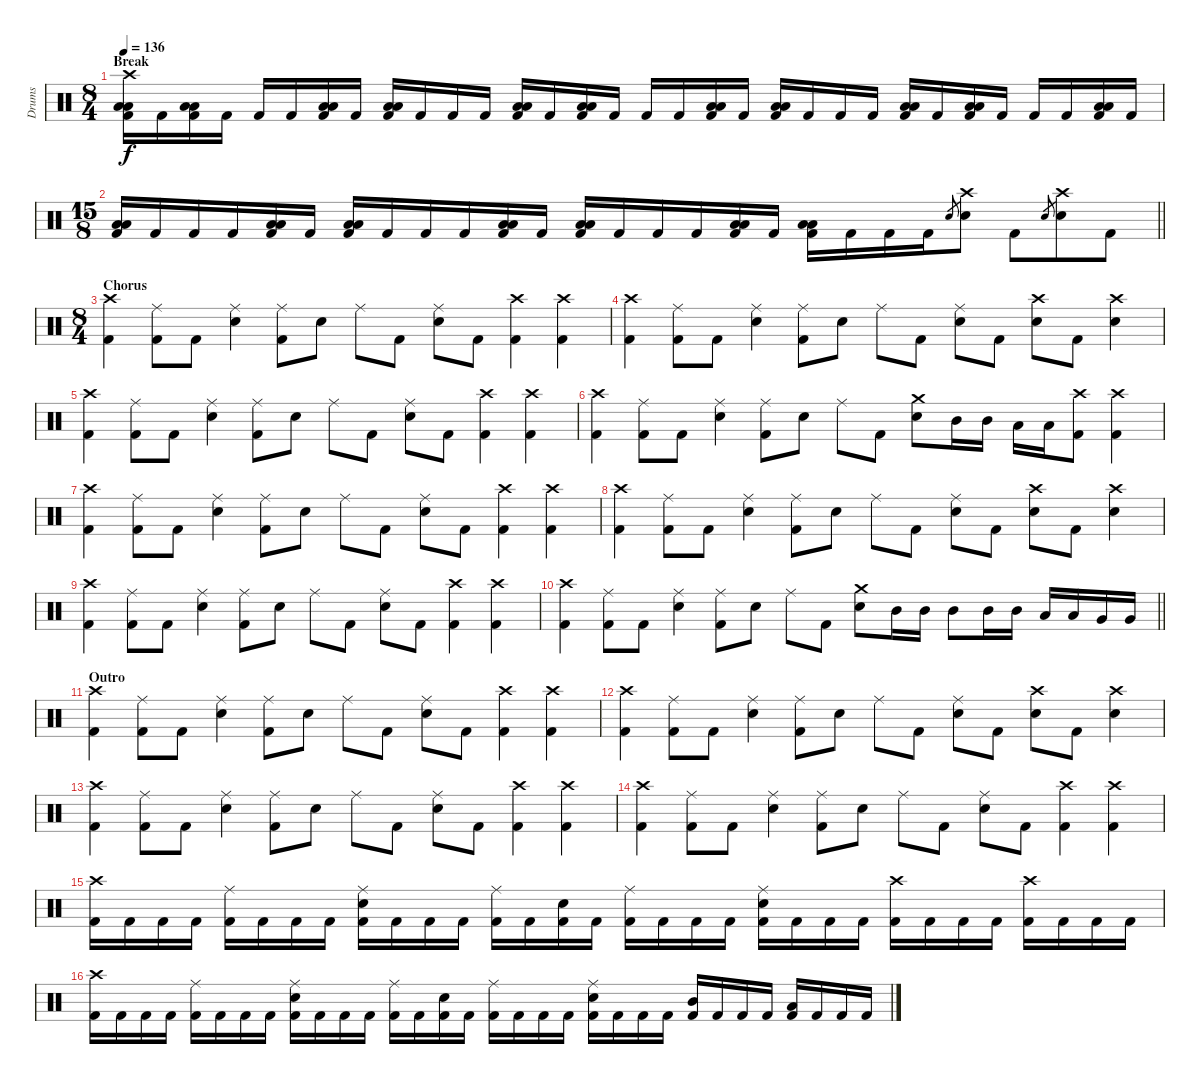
\track ("Drums" "Drums") {instrument percussion}
\staff {score}
\articulation defaults
\ts (8 4)
\section ("" "Break")
\tempo 136
\clef neutral
\ks c
("Crash high (hit)" "Low Floor Tom (hit)" "Low Floor Tom (hit)" "Kick (hit) 2").16{dy f} "Kick (hit) 2".16 ("Low Floor Tom (hit)" "Low Floor Tom (hit)" "Kick (hit) 2").16 "Kick (hit) 2".16 "Kick (hit) 2".16 "Kick (hit) 2".16 ("Low Floor Tom (hit)" "Low Floor Tom (hit)" "Kick (hit) 2").16 "Kick (hit) 2".16 ("Low Floor Tom (hit)" "Low Floor Tom (hit)" "Kick (hit) 2").16 "Kick (hit) 2".16 "Kick (hit) 2".16 "Kick (hit) 2".16 ("Low Floor Tom (hit)" "Low Floor Tom (hit)" "Kick (hit) 2").16 "Kick (hit) 2".16 ("Low Floor Tom (hit)" "Low Floor Tom (hit)" "Kick (hit) 2").16 "Kick (hit) 2".16 "Kick (hit) 2".16 "Kick (hit) 2".16 ("Low Floor Tom (hit)" "Low Floor Tom (hit)" "Kick (hit) 2").16 "Kick (hit) 2".16 ("Low Floor Tom (hit)" "Low Floor Tom (hit)" "Kick (hit) 2").16 "Kick (hit) 2".16 "Kick (hit) 2".16 "Kick (hit) 2".16 ("Low Floor Tom (hit)" "Low Floor Tom (hit)" "Kick (hit) 2").16 "Kick (hit) 2".16 ("Low Floor Tom (hit)" "Low Floor Tom (hit)" "Kick (hit) 2").16 "Kick (hit) 2".16 "Kick (hit) 2".16 "Kick (hit) 2".16 ("Low Floor Tom (hit)" "Low Floor Tom (hit)" "Kick (hit) 2").16 "Kick (hit) 2".16 |
\ts (15 8)
\barLineRight lightlight
("Low Floor Tom (hit)" "Low Floor Tom (hit)" "Kick (hit) 2").16 "Kick (hit) 2".16 "Kick (hit) 2".16 "Kick (hit) 2".16 ("Low Floor Tom (hit)" "Low Floor Tom (hit)" "Kick (hit) 2").16 "Kick (hit) 2".16 ("Low Floor Tom (hit)" "Low Floor Tom (hit)" "Kick (hit) 2").16 "Kick (hit) 2".16 "Kick (hit) 2".16 "Kick (hit) 2".16 ("Low Floor Tom (hit)" "Low Floor Tom (hit)" "Kick (hit) 2").16 "Kick (hit) 2".16 ("Low Floor Tom (hit)" "Low Floor Tom (hit)" "Kick (hit) 2").16 "Kick (hit) 2".16 "Kick (hit) 2".16 "Kick (hit) 2".16 ("Low Floor Tom (hit)" "Low Floor Tom (hit)" "Kick (hit) 2").16 "Kick (hit) 2".16 ("Low Floor Tom (hit)" "Low Floor Tom (hit)" "Kick (hit) 2").16 "Kick (hit) 2".16 "Kick (hit) 2".16 "Kick (hit) 2".16 "Snare (hit) 2"{h}.8{gr} ("Crash high (hit)" "Snare (hit) 2").8 "Kick (hit) 2".8 "Snare (hit) 2"{h}.8{gr} ("Crash high (hit)" "Snare (hit) 2").8 "Kick (hit) 2".8 |
\ts (8 4)
\section ("" "Chorus")
("Crash high (hit)" "Kick (hit) 2").4 ("Ride (middle)" "Kick (hit) 2").8 "Kick (hit) 2".8 ("Ride (middle)" "Snare (hit) 2").4 ("Ride (middle)" "Kick (hit) 2").8 "Snare (hit) 2".8 "Ride (middle)".8 "Kick (hit) 2".8 ("Ride (middle)" "Snare (hit) 2").8 "Kick (hit) 2".8 ("Crash high (hit)" "Kick (hit) 2").4 ("Crash high (hit)" "Kick (hit) 2").4 |
("Crash high (hit)" "Kick (hit) 2").4 ("Ride (middle)" "Kick (hit) 2").8 "Kick (hit) 2".8 ("Ride (middle)" "Snare (hit) 2").4 ("Ride (middle)" "Kick (hit) 2").8 "Snare (hit) 2".8 "Ride (middle)".8 "Kick (hit) 2".8 ("Ride (middle)" "Snare (hit) 2").8 "Kick (hit) 2".8 ("Crash high (hit)" "Snare (hit) 2").8 "Kick (hit) 2".8 ("Crash high (hit)" "Snare (hit) 2").4 |
("Crash high (hit)" "Kick (hit) 2").4 ("Ride (middle)" "Kick (hit) 2").8 "Kick (hit) 2".8 ("Ride (middle)" "Snare (hit) 2").4 ("Ride (middle)" "Kick (hit) 2").8 "Snare (hit) 2".8 "Ride (middle)".8 "Kick (hit) 2".8 ("Ride (middle)" "Snare (hit) 2").8 "Kick (hit) 2".8 ("Crash high (hit)" "Kick (hit) 2").4 ("Crash high (hit)" "Kick (hit) 2").4 |
("Crash high (hit)" "Kick (hit) 2").4 ("Ride (middle)" "Kick (hit) 2").8 "Kick (hit) 2".8 ("Ride (middle)" "Snare (hit) 2").4 ("Ride (middle)" "Kick (hit) 2").8 "Snare (hit) 2".8 "Ride (middle)".8 "Kick (hit) 2".8 ("Crash medium (hit)" "Snare (hit) 2").8 "Mid Tom (hit)".16 "Mid Tom (hit)".16 "Low Tom (hit)".16 "Low Tom (hit)".16 ("Crash high (hit)" "Kick (hit) 2").8 ("Crash high (hit)" "Kick (hit) 2").4 |
("Crash high (hit)" "Kick (hit) 2").4 ("Ride (middle)" "Kick (hit) 2").8 "Kick (hit) 2".8 ("Ride (middle)" "Snare (hit) 2").4 ("Ride (middle)" "Kick (hit) 2").8 "Snare (hit) 2".8 "Ride (middle)".8 "Kick (hit) 2".8 ("Ride (middle)" "Snare (hit) 2").8 "Kick (hit) 2".8 ("Crash high (hit)" "Kick (hit) 2").4 ("Crash high (hit)" "Kick (hit) 2").4 |
("Crash high (hit)" "Kick (hit) 2").4 ("Ride (middle)" "Kick (hit) 2").8 "Kick (hit) 2".8 ("Ride (middle)" "Snare (hit) 2").4 ("Ride (middle)" "Kick (hit) 2").8 "Snare (hit) 2".8 "Ride (middle)".8 "Kick (hit) 2".8 ("Ride (middle)" "Snare (hit) 2").8 "Kick (hit) 2".8 ("Crash high (hit)" "Snare (hit) 2").8 "Kick (hit) 2".8 ("Crash high (hit)" "Snare (hit) 2").4 |
("Crash high (hit)" "Kick (hit) 2").4 ("Ride (middle)" "Kick (hit) 2").8 "Kick (hit) 2".8 ("Ride (middle)" "Snare (hit) 2").4 ("Ride (middle)" "Kick (hit) 2").8 "Snare (hit) 2".8 "Ride (middle)".8 "Kick (hit) 2".8 ("Ride (middle)" "Snare (hit) 2").8 "Kick (hit) 2".8 ("Crash high (hit)" "Kick (hit) 2").4 ("Crash high (hit)" "Kick (hit) 2").4 |
\barLineRight lightlight
("Crash high (hit)" "Kick (hit) 2").4 ("Ride (middle)" "Kick (hit) 2").8 "Kick (hit) 2".8 ("Ride (middle)" "Snare (hit) 2").4 ("Ride (middle)" "Kick (hit) 2").8 "Snare (hit) 2".8 "Ride (middle)".8 "Kick (hit) 2".8 ("Crash medium (hit)" "Snare (hit) 2").8 "Mid Tom (hit)".16 "Mid Tom (hit)".16 "Mid Tom (hit)".8 "Mid Tom (hit)".16 "Mid Tom (hit)".16 "Low Tom (hit)".16 "Low Tom (hit)".16 "Very Low Tom (hit)".16 "Very Low Tom (hit)".16 |
\section ("" "Outro")
("Crash high (hit)" "Kick (hit) 2").4 ("Ride (middle)" "Kick (hit) 2").8 "Kick (hit) 2".8 ("Ride (middle)" "Snare (hit) 2").4 ("Ride (middle)" "Kick (hit) 2").8 "Snare (hit) 2".8 "Ride (middle)".8 "Kick (hit) 2".8 ("Ride (middle)" "Snare (hit) 2").8 "Kick (hit) 2".8 ("Crash high (hit)" "Kick (hit) 2").4 ("Crash high (hit)" "Kick (hit) 2").4 |
("Crash high (hit)" "Kick (hit) 2").4 ("Ride (middle)" "Kick (hit) 2").8 "Kick (hit) 2".8 ("Ride (middle)" "Snare (hit) 2").4 ("Ride (middle)" "Kick (hit) 2").8 "Snare (hit) 2".8 "Ride (middle)".8 "Kick (hit) 2".8 ("Ride (middle)" "Snare (hit) 2").8 "Kick (hit) 2".8 ("Crash high (hit)" "Snare (hit) 2").8 "Kick (hit) 2".8 ("Crash high (hit)" "Snare (hit) 2").4 |
("Crash high (hit)" "Kick (hit) 2").4 ("Ride (middle)" "Kick (hit) 2").8 "Kick (hit) 2".8 ("Ride (middle)" "Snare (hit) 2").4 ("Ride (middle)" "Kick (hit) 2").8 "Snare (hit) 2".8 "Ride (middle)".8 "Kick (hit) 2".8 ("Ride (middle)" "Snare (hit) 2").8 "Kick (hit) 2".8 ("Crash high (hit)" "Kick (hit) 2").4 ("Crash high (hit)" "Kick (hit) 2").4 |
("Crash high (hit)" "Kick (hit) 2").4 ("Ride (middle)" "Kick (hit) 2").8 "Kick (hit) 2".8 ("Ride (middle)" "Snare (hit) 2").4 ("Ride (middle)" "Kick (hit) 2").8 "Snare (hit) 2".8 "Ride (middle)".8 "Kick (hit) 2".8 ("Ride (middle)" "Snare (hit) 2").8 "Kick (hit) 2".8 ("Crash high (hit)" "Kick (hit) 2").4 ("Crash high (hit)" "Kick (hit) 2").4 |
("Crash high (hit)" "Kick (hit) 2").16 "Kick (hit) 2".16 "Kick (hit) 2".16 "Kick (hit) 2".16 ("Ride (middle)" "Kick (hit) 2").16 "Kick (hit) 2".16 "Kick (hit) 2".16 "Kick (hit) 2".16 ("Ride (middle)" "Snare (hit) 2" "Kick (hit) 2").16 "Kick (hit) 2".16 "Kick (hit) 2".16 "Kick (hit) 2".16 ("Ride (middle)" "Kick (hit) 2").16 "Kick (hit) 2".16 ("Snare (hit) 2" "Kick (hit) 2").16 "Kick (hit) 2".16 ("Ride (middle)" "Kick (hit) 2").16 "Kick (hit) 2".16 "Kick (hit) 2".16 "Kick (hit) 2".16 ("Ride (middle)" "Snare (hit) 2" "Kick (hit) 2").16 "Kick (hit) 2".16 "Kick (hit) 2".16 "Kick (hit) 2".16 ("Crash high (hit)" "Kick (hit) 2").16 "Kick (hit) 2".16 "Kick (hit) 2".16 "Kick (hit) 2".16 ("Crash high (hit)" "Kick (hit) 2").16 "Kick (hit) 2".16 "Kick (hit) 2".16 "Kick (hit) 2".16 |
("Crash high (hit)" "Kick (hit) 2").16 "Kick (hit) 2".16 "Kick (hit) 2".16 "Kick (hit) 2".16 ("Ride (middle)" "Kick (hit) 2").16 "Kick (hit) 2".16 "Kick (hit) 2".16 "Kick (hit) 2".16 ("Ride (middle)" "Snare (hit) 2" "Kick (hit) 2").16 "Kick (hit) 2".16 "Kick (hit) 2".16 "Kick (hit) 2".16 ("Ride (middle)" "Kick (hit) 2").16 "Kick (hit) 2".16 ("Snare (hit) 2" "Kick (hit) 2").16 "Kick (hit) 2".16 ("Ride (middle)" "Kick (hit) 2").16 "Kick (hit) 2".16 "Kick (hit) 2".16 "Kick (hit) 2".16 ("Ride (middle)" "Snare (hit) 2" "Kick (hit) 2").16 "Kick (hit) 2".16 "Kick (hit) 2".16 "Kick (hit) 2".16 ("Mid Tom (hit)" "Kick (hit) 2").16 "Kick (hit) 2".16 "Kick (hit) 2".16 "Kick (hit) 2".16 ("Low Floor Tom (hit)" "Kick (hit) 2").16 "Kick (hit) 2".16 "Kick (hit) 2".16 "Kick (hit) 2".16
